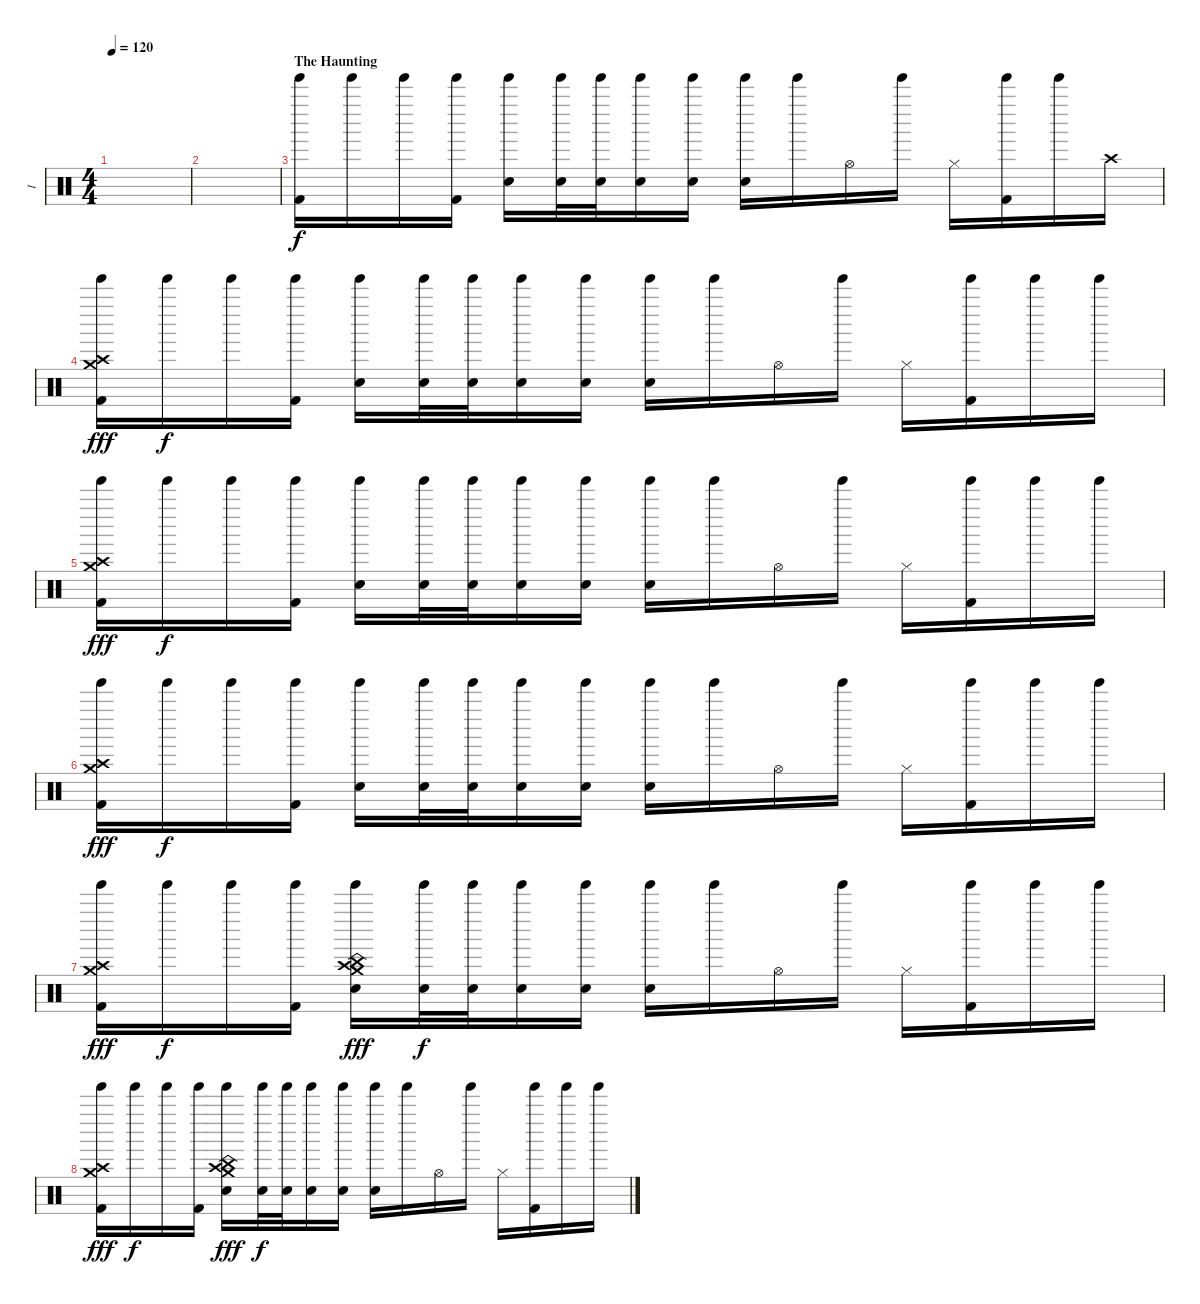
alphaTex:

\track ("I" "I") {instrument percussion}
\staff {score}
\articulation defaults
\ts (4 4)
\tempo 120
\clef neutral
\ks c
|
|
\section ("" "The Haunting")
("Tinkle Bell (hit)" "Kick (hit) 2").16{volume 7} "Tinkle Bell (hit)".16 "Tinkle Bell (hit)".16 ("Tinkle Bell (hit)" "Kick (hit) 2").16 ("Tinkle Bell (hit)" "Snare (hit) 2").16 ("Tinkle Bell (hit)" "Snare (hit) 2").32 ("Tinkle Bell (hit)" "Snare (hit) 2").32 ("Tinkle Bell (hit)" "Snare (hit) 2").16 ("Tinkle Bell (hit)" "Snare (hit) 2").16 ("Tinkle Bell (hit)" "Snare (hit) 2").16 "Tinkle Bell (hit)".16 "Hi-Hat (open)".16 "Tinkle Bell (hit)".16 "Hi-Hat (closed)".16 ("Tinkle Bell (hit)" "Kick (hit) 2").16 "Tinkle Bell (hit)".16 "Crash high (hit)".16 |
("Crash high (hit)" "Crash medium (hit)" "Tinkle Bell (hit)" "Kick (hit) 2").16{dy fff} "Tinkle Bell (hit)".16{dy f} "Tinkle Bell (hit)".16 ("Tinkle Bell (hit)" "Kick (hit) 2").16 ("Tinkle Bell (hit)" "Snare (hit) 2").16 ("Tinkle Bell (hit)" "Snare (hit) 2").32 ("Tinkle Bell (hit)" "Snare (hit) 2").32 ("Tinkle Bell (hit)" "Snare (hit) 2").16 ("Tinkle Bell (hit)" "Snare (hit) 2").16 ("Tinkle Bell (hit)" "Snare (hit) 2").16 "Tinkle Bell (hit)".16 "Hi-Hat (open)".16 "Tinkle Bell (hit)".16 "Hi-Hat (closed)".16 ("Tinkle Bell (hit)" "Kick (hit) 2").16 "Tinkle Bell (hit)".16 "Tinkle Bell (hit)".16 |
("Crash high (hit)" "Crash medium (hit)" "Tinkle Bell (hit)" "Kick (hit) 2").16{dy fff} "Tinkle Bell (hit)".16{dy f} "Tinkle Bell (hit)".16 ("Tinkle Bell (hit)" "Kick (hit) 2").16 ("Tinkle Bell (hit)" "Snare (hit) 2").16 ("Tinkle Bell (hit)" "Snare (hit) 2").32 ("Tinkle Bell (hit)" "Snare (hit) 2").32 ("Tinkle Bell (hit)" "Snare (hit) 2").16 ("Tinkle Bell (hit)" "Snare (hit) 2").16 ("Tinkle Bell (hit)" "Snare (hit) 2").16 "Tinkle Bell (hit)".16 "Hi-Hat (open)".16 "Tinkle Bell (hit)".16 "Hi-Hat (closed)".16 ("Tinkle Bell (hit)" "Kick (hit) 2").16 "Tinkle Bell (hit)".16 "Tinkle Bell (hit)".16 |
("Crash high (hit)" "Crash medium (hit)" "Tinkle Bell (hit)" "Kick (hit) 2").16{dy fff} "Tinkle Bell (hit)".16{dy f} "Tinkle Bell (hit)".16 ("Tinkle Bell (hit)" "Kick (hit) 2").16 ("Tinkle Bell (hit)" "Snare (hit) 2").16 ("Tinkle Bell (hit)" "Snare (hit) 2").32 ("Tinkle Bell (hit)" "Snare (hit) 2").32 ("Tinkle Bell (hit)" "Snare (hit) 2").16 ("Tinkle Bell (hit)" "Snare (hit) 2").16 ("Tinkle Bell (hit)" "Snare (hit) 2").16 "Tinkle Bell (hit)".16 "Hi-Hat (open)".16 "Tinkle Bell (hit)".16 "Hi-Hat (closed)".16 ("Tinkle Bell (hit)" "Kick (hit) 2").16 "Tinkle Bell (hit)".16 "Tinkle Bell (hit)".16 |
("Crash high (hit)" "Crash medium (hit)" "Tinkle Bell (hit)" "Kick (hit) 2").16{dy fff} "Tinkle Bell (hit)".16{dy f} "Tinkle Bell (hit)".16 ("Tinkle Bell (hit)" "Kick (hit) 2").16 ("Crash high (hit)" "Crash medium (hit)" "Tinkle Bell (hit)" "Snare (hit) 2" "China (hit)").16{dy fff} ("Tinkle Bell (hit)" "Snare (hit) 2").32{dy f} ("Tinkle Bell (hit)" "Snare (hit) 2").32 ("Tinkle Bell (hit)" "Snare (hit) 2").16 ("Tinkle Bell (hit)" "Snare (hit) 2").16 ("Tinkle Bell (hit)" "Snare (hit) 2").16 "Tinkle Bell (hit)".16 "Hi-Hat (open)".16 "Tinkle Bell (hit)".16 "Hi-Hat (closed)".16 ("Tinkle Bell (hit)" "Kick (hit) 2").16 "Tinkle Bell (hit)".16 "Tinkle Bell (hit)".16 |
("Crash high (hit)" "Crash medium (hit)" "Tinkle Bell (hit)" "Kick (hit) 2").16{dy fff} "Tinkle Bell (hit)".16{dy f} "Tinkle Bell (hit)".16 ("Tinkle Bell (hit)" "Kick (hit) 2").16 ("Crash high (hit)" "Crash medium (hit)" "Tinkle Bell (hit)" "Snare (hit) 2" "China (hit)").16{dy fff} ("Tinkle Bell (hit)" "Snare (hit) 2").32{dy f} ("Tinkle Bell (hit)" "Snare (hit) 2").32 ("Tinkle Bell (hit)" "Snare (hit) 2").16 ("Tinkle Bell (hit)" "Snare (hit) 2").16 ("Tinkle Bell (hit)" "Snare (hit) 2").16 "Tinkle Bell (hit)".16 "Hi-Hat (open)".16 "Tinkle Bell (hit)".16 "Hi-Hat (closed)".16 ("Tinkle Bell (hit)" "Kick (hit) 2").16 "Tinkle Bell (hit)".16 "Tinkle Bell (hit)".16
